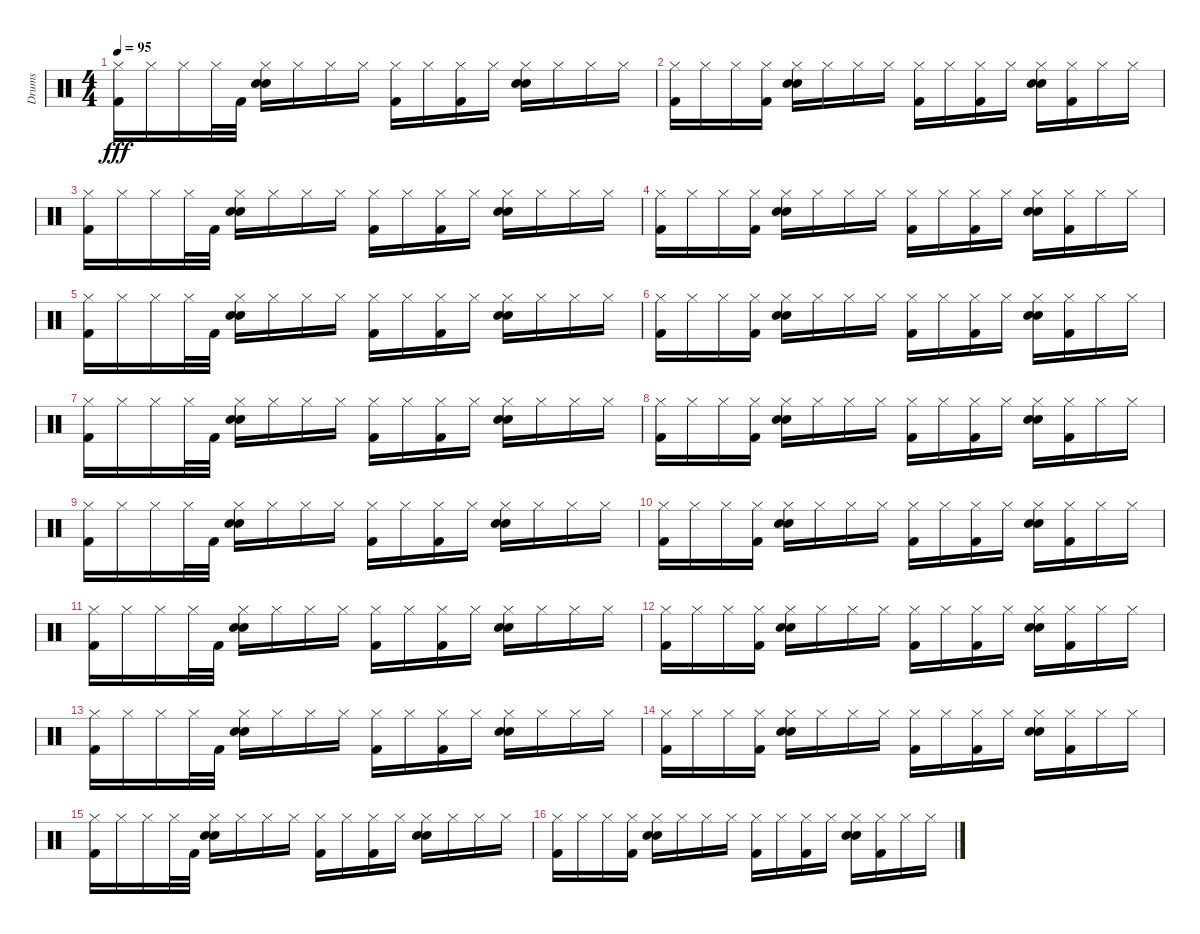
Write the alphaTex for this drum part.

\track ("Drums" "Drums") {instrument percussion}
\staff {score}
\articulation defaults
\ts (4 4)
\tempo 95
\clef neutral
\ks c
("Hi-Hat (closed)" "Kick (hit) 2").16{dy fff} "Hi-Hat (closed)".16 "Hi-Hat (closed)".16 "Hi-Hat (closed)".32 "Kick (hit) 2".32 ("Hi-Hat (closed)" "Snare (hit) 2" "Electric Snare (hit)").16 "Hi-Hat (closed)".16 "Hi-Hat (closed)".16 "Hi-Hat (closed)".16 ("Hi-Hat (closed)" "Kick (hit) 2").16 "Hi-Hat (closed)".16 ("Hi-Hat (closed)" "Kick (hit) 2").16 "Hi-Hat (closed)".16 ("Hi-Hat (closed)" "Snare (hit) 2" "Electric Snare (hit)").16 "Hi-Hat (closed)".16 "Hi-Hat (closed)".16 "Hi-Hat (closed)".16 |
("Kick (hit) 2" "Hi-Hat (closed)").16 "Hi-Hat (closed)".16 "Hi-Hat (closed)".16 ("Kick (hit) 2" "Hi-Hat (closed)").16 ("Snare (hit) 2" "Electric Snare (hit)" "Hi-Hat (closed)").16 "Hi-Hat (closed)".16 "Hi-Hat (closed)".16 "Hi-Hat (closed)".16 ("Kick (hit) 2" "Hi-Hat (closed)").16 "Hi-Hat (closed)".16 ("Kick (hit) 2" "Hi-Hat (closed)").16 "Hi-Hat (closed)".16 ("Snare (hit) 2" "Electric Snare (hit)" "Hi-Hat (closed)").16 ("Kick (hit) 2" "Hi-Hat (closed)").16 "Hi-Hat (closed)".16 "Hi-Hat (closed)".16 |
("Hi-Hat (closed)" "Kick (hit) 2").16 "Hi-Hat (closed)".16 "Hi-Hat (closed)".16 "Hi-Hat (closed)".32 "Kick (hit) 2".32 ("Hi-Hat (closed)" "Snare (hit) 2" "Electric Snare (hit)").16 "Hi-Hat (closed)".16 "Hi-Hat (closed)".16 "Hi-Hat (closed)".16 ("Hi-Hat (closed)" "Kick (hit) 2").16 "Hi-Hat (closed)".16 ("Hi-Hat (closed)" "Kick (hit) 2").16 "Hi-Hat (closed)".16 ("Hi-Hat (closed)" "Snare (hit) 2" "Electric Snare (hit)").16 "Hi-Hat (closed)".16 "Hi-Hat (closed)".16 "Hi-Hat (closed)".16 |
("Kick (hit) 2" "Hi-Hat (closed)").16 "Hi-Hat (closed)".16 "Hi-Hat (closed)".16 ("Kick (hit) 2" "Hi-Hat (closed)").16 ("Snare (hit) 2" "Electric Snare (hit)" "Hi-Hat (closed)").16 "Hi-Hat (closed)".16 "Hi-Hat (closed)".16 "Hi-Hat (closed)".16 ("Kick (hit) 2" "Hi-Hat (closed)").16 "Hi-Hat (closed)".16 ("Kick (hit) 2" "Hi-Hat (closed)").16 "Hi-Hat (closed)".16 ("Snare (hit) 2" "Electric Snare (hit)" "Hi-Hat (closed)").16 ("Kick (hit) 2" "Hi-Hat (closed)").16 "Hi-Hat (closed)".16 "Hi-Hat (closed)".16 |
("Hi-Hat (closed)" "Kick (hit) 2").16 "Hi-Hat (closed)".16 "Hi-Hat (closed)".16 "Hi-Hat (closed)".32 "Kick (hit) 2".32 ("Hi-Hat (closed)" "Snare (hit) 2" "Electric Snare (hit)").16 "Hi-Hat (closed)".16 "Hi-Hat (closed)".16 "Hi-Hat (closed)".16 ("Hi-Hat (closed)" "Kick (hit) 2").16 "Hi-Hat (closed)".16 ("Hi-Hat (closed)" "Kick (hit) 2").16 "Hi-Hat (closed)".16 ("Hi-Hat (closed)" "Snare (hit) 2" "Electric Snare (hit)").16 "Hi-Hat (closed)".16 "Hi-Hat (closed)".16 "Hi-Hat (closed)".16 |
("Kick (hit) 2" "Hi-Hat (closed)").16 "Hi-Hat (closed)".16 "Hi-Hat (closed)".16 ("Kick (hit) 2" "Hi-Hat (closed)").16 ("Snare (hit) 2" "Electric Snare (hit)" "Hi-Hat (closed)").16 "Hi-Hat (closed)".16 "Hi-Hat (closed)".16 "Hi-Hat (closed)".16 ("Kick (hit) 2" "Hi-Hat (closed)").16 "Hi-Hat (closed)".16 ("Kick (hit) 2" "Hi-Hat (closed)").16 "Hi-Hat (closed)".16 ("Snare (hit) 2" "Electric Snare (hit)" "Hi-Hat (closed)").16 ("Kick (hit) 2" "Hi-Hat (closed)").16 "Hi-Hat (closed)".16 "Hi-Hat (closed)".16 |
("Hi-Hat (closed)" "Kick (hit) 2").16 "Hi-Hat (closed)".16 "Hi-Hat (closed)".16 "Hi-Hat (closed)".32 "Kick (hit) 2".32 ("Hi-Hat (closed)" "Snare (hit) 2" "Electric Snare (hit)").16 "Hi-Hat (closed)".16 "Hi-Hat (closed)".16 "Hi-Hat (closed)".16 ("Hi-Hat (closed)" "Kick (hit) 2").16 "Hi-Hat (closed)".16 ("Hi-Hat (closed)" "Kick (hit) 2").16 "Hi-Hat (closed)".16 ("Hi-Hat (closed)" "Snare (hit) 2" "Electric Snare (hit)").16 "Hi-Hat (closed)".16 "Hi-Hat (closed)".16 "Hi-Hat (closed)".16 |
("Kick (hit) 2" "Hi-Hat (closed)").16 "Hi-Hat (closed)".16 "Hi-Hat (closed)".16 ("Kick (hit) 2" "Hi-Hat (closed)").16 ("Snare (hit) 2" "Electric Snare (hit)" "Hi-Hat (closed)").16 "Hi-Hat (closed)".16 "Hi-Hat (closed)".16 "Hi-Hat (closed)".16 ("Kick (hit) 2" "Hi-Hat (closed)").16 "Hi-Hat (closed)".16 ("Kick (hit) 2" "Hi-Hat (closed)").16 "Hi-Hat (closed)".16 ("Snare (hit) 2" "Electric Snare (hit)" "Hi-Hat (closed)").16 ("Kick (hit) 2" "Hi-Hat (closed)").16 "Hi-Hat (closed)".16 "Hi-Hat (closed)".16 |
("Hi-Hat (closed)" "Kick (hit) 2").16 "Hi-Hat (closed)".16 "Hi-Hat (closed)".16 "Hi-Hat (closed)".32 "Kick (hit) 2".32 ("Hi-Hat (closed)" "Snare (hit) 2" "Electric Snare (hit)").16 "Hi-Hat (closed)".16 "Hi-Hat (closed)".16 "Hi-Hat (closed)".16 ("Hi-Hat (closed)" "Kick (hit) 2").16 "Hi-Hat (closed)".16 ("Hi-Hat (closed)" "Kick (hit) 2").16 "Hi-Hat (closed)".16 ("Hi-Hat (closed)" "Snare (hit) 2" "Electric Snare (hit)").16 "Hi-Hat (closed)".16 "Hi-Hat (closed)".16 "Hi-Hat (closed)".16 |
("Kick (hit) 2" "Hi-Hat (closed)").16 "Hi-Hat (closed)".16 "Hi-Hat (closed)".16 ("Kick (hit) 2" "Hi-Hat (closed)").16 ("Snare (hit) 2" "Electric Snare (hit)" "Hi-Hat (closed)").16 "Hi-Hat (closed)".16 "Hi-Hat (closed)".16 "Hi-Hat (closed)".16 ("Kick (hit) 2" "Hi-Hat (closed)").16 "Hi-Hat (closed)".16 ("Kick (hit) 2" "Hi-Hat (closed)").16 "Hi-Hat (closed)".16 ("Snare (hit) 2" "Electric Snare (hit)" "Hi-Hat (closed)").16 ("Kick (hit) 2" "Hi-Hat (closed)").16 "Hi-Hat (closed)".16 "Hi-Hat (closed)".16 |
("Hi-Hat (closed)" "Kick (hit) 2").16 "Hi-Hat (closed)".16 "Hi-Hat (closed)".16 "Hi-Hat (closed)".32 "Kick (hit) 2".32 ("Hi-Hat (closed)" "Snare (hit) 2" "Electric Snare (hit)").16 "Hi-Hat (closed)".16 "Hi-Hat (closed)".16 "Hi-Hat (closed)".16 ("Hi-Hat (closed)" "Kick (hit) 2").16 "Hi-Hat (closed)".16 ("Hi-Hat (closed)" "Kick (hit) 2").16 "Hi-Hat (closed)".16 ("Hi-Hat (closed)" "Snare (hit) 2" "Electric Snare (hit)").16 "Hi-Hat (closed)".16 "Hi-Hat (closed)".16 "Hi-Hat (closed)".16 |
("Kick (hit) 2" "Hi-Hat (closed)").16 "Hi-Hat (closed)".16 "Hi-Hat (closed)".16 ("Kick (hit) 2" "Hi-Hat (closed)").16 ("Snare (hit) 2" "Electric Snare (hit)" "Hi-Hat (closed)").16 "Hi-Hat (closed)".16 "Hi-Hat (closed)".16 "Hi-Hat (closed)".16 ("Kick (hit) 2" "Hi-Hat (closed)").16 "Hi-Hat (closed)".16 ("Kick (hit) 2" "Hi-Hat (closed)").16 "Hi-Hat (closed)".16 ("Snare (hit) 2" "Electric Snare (hit)" "Hi-Hat (closed)").16 ("Kick (hit) 2" "Hi-Hat (closed)").16 "Hi-Hat (closed)".16 "Hi-Hat (closed)".16 |
("Hi-Hat (closed)" "Kick (hit) 2").16 "Hi-Hat (closed)".16 "Hi-Hat (closed)".16 "Hi-Hat (closed)".32 "Kick (hit) 2".32 ("Hi-Hat (closed)" "Snare (hit) 2" "Electric Snare (hit)").16 "Hi-Hat (closed)".16 "Hi-Hat (closed)".16 "Hi-Hat (closed)".16 ("Hi-Hat (closed)" "Kick (hit) 2").16 "Hi-Hat (closed)".16 ("Hi-Hat (closed)" "Kick (hit) 2").16 "Hi-Hat (closed)".16 ("Hi-Hat (closed)" "Snare (hit) 2" "Electric Snare (hit)").16 "Hi-Hat (closed)".16 "Hi-Hat (closed)".16 "Hi-Hat (closed)".16 |
("Kick (hit) 2" "Hi-Hat (closed)").16 "Hi-Hat (closed)".16 "Hi-Hat (closed)".16 ("Kick (hit) 2" "Hi-Hat (closed)").16 ("Snare (hit) 2" "Electric Snare (hit)" "Hi-Hat (closed)").16 "Hi-Hat (closed)".16 "Hi-Hat (closed)".16 "Hi-Hat (closed)".16 ("Kick (hit) 2" "Hi-Hat (closed)").16 "Hi-Hat (closed)".16 ("Kick (hit) 2" "Hi-Hat (closed)").16 "Hi-Hat (closed)".16 ("Snare (hit) 2" "Electric Snare (hit)" "Hi-Hat (closed)").16 ("Kick (hit) 2" "Hi-Hat (closed)").16 "Hi-Hat (closed)".16 "Hi-Hat (closed)".16 |
("Hi-Hat (closed)" "Kick (hit) 2").16 "Hi-Hat (closed)".16 "Hi-Hat (closed)".16 "Hi-Hat (closed)".32 "Kick (hit) 2".32 ("Hi-Hat (closed)" "Snare (hit) 2" "Electric Snare (hit)").16 "Hi-Hat (closed)".16 "Hi-Hat (closed)".16 "Hi-Hat (closed)".16 ("Hi-Hat (closed)" "Kick (hit) 2").16 "Hi-Hat (closed)".16 ("Hi-Hat (closed)" "Kick (hit) 2").16 "Hi-Hat (closed)".16 ("Hi-Hat (closed)" "Snare (hit) 2" "Electric Snare (hit)").16 "Hi-Hat (closed)".16 "Hi-Hat (closed)".16 "Hi-Hat (closed)".16 |
("Kick (hit) 2" "Hi-Hat (closed)").16 "Hi-Hat (closed)".16 "Hi-Hat (closed)".16 ("Kick (hit) 2" "Hi-Hat (closed)").16 ("Snare (hit) 2" "Electric Snare (hit)" "Hi-Hat (closed)").16 "Hi-Hat (closed)".16 "Hi-Hat (closed)".16 "Hi-Hat (closed)".16 ("Kick (hit) 2" "Hi-Hat (closed)").16 "Hi-Hat (closed)".16 ("Kick (hit) 2" "Hi-Hat (closed)").16 "Hi-Hat (closed)".16 ("Snare (hit) 2" "Electric Snare (hit)" "Hi-Hat (closed)").16 ("Kick (hit) 2" "Hi-Hat (closed)").16 "Hi-Hat (closed)".16 "Hi-Hat (closed)".16
